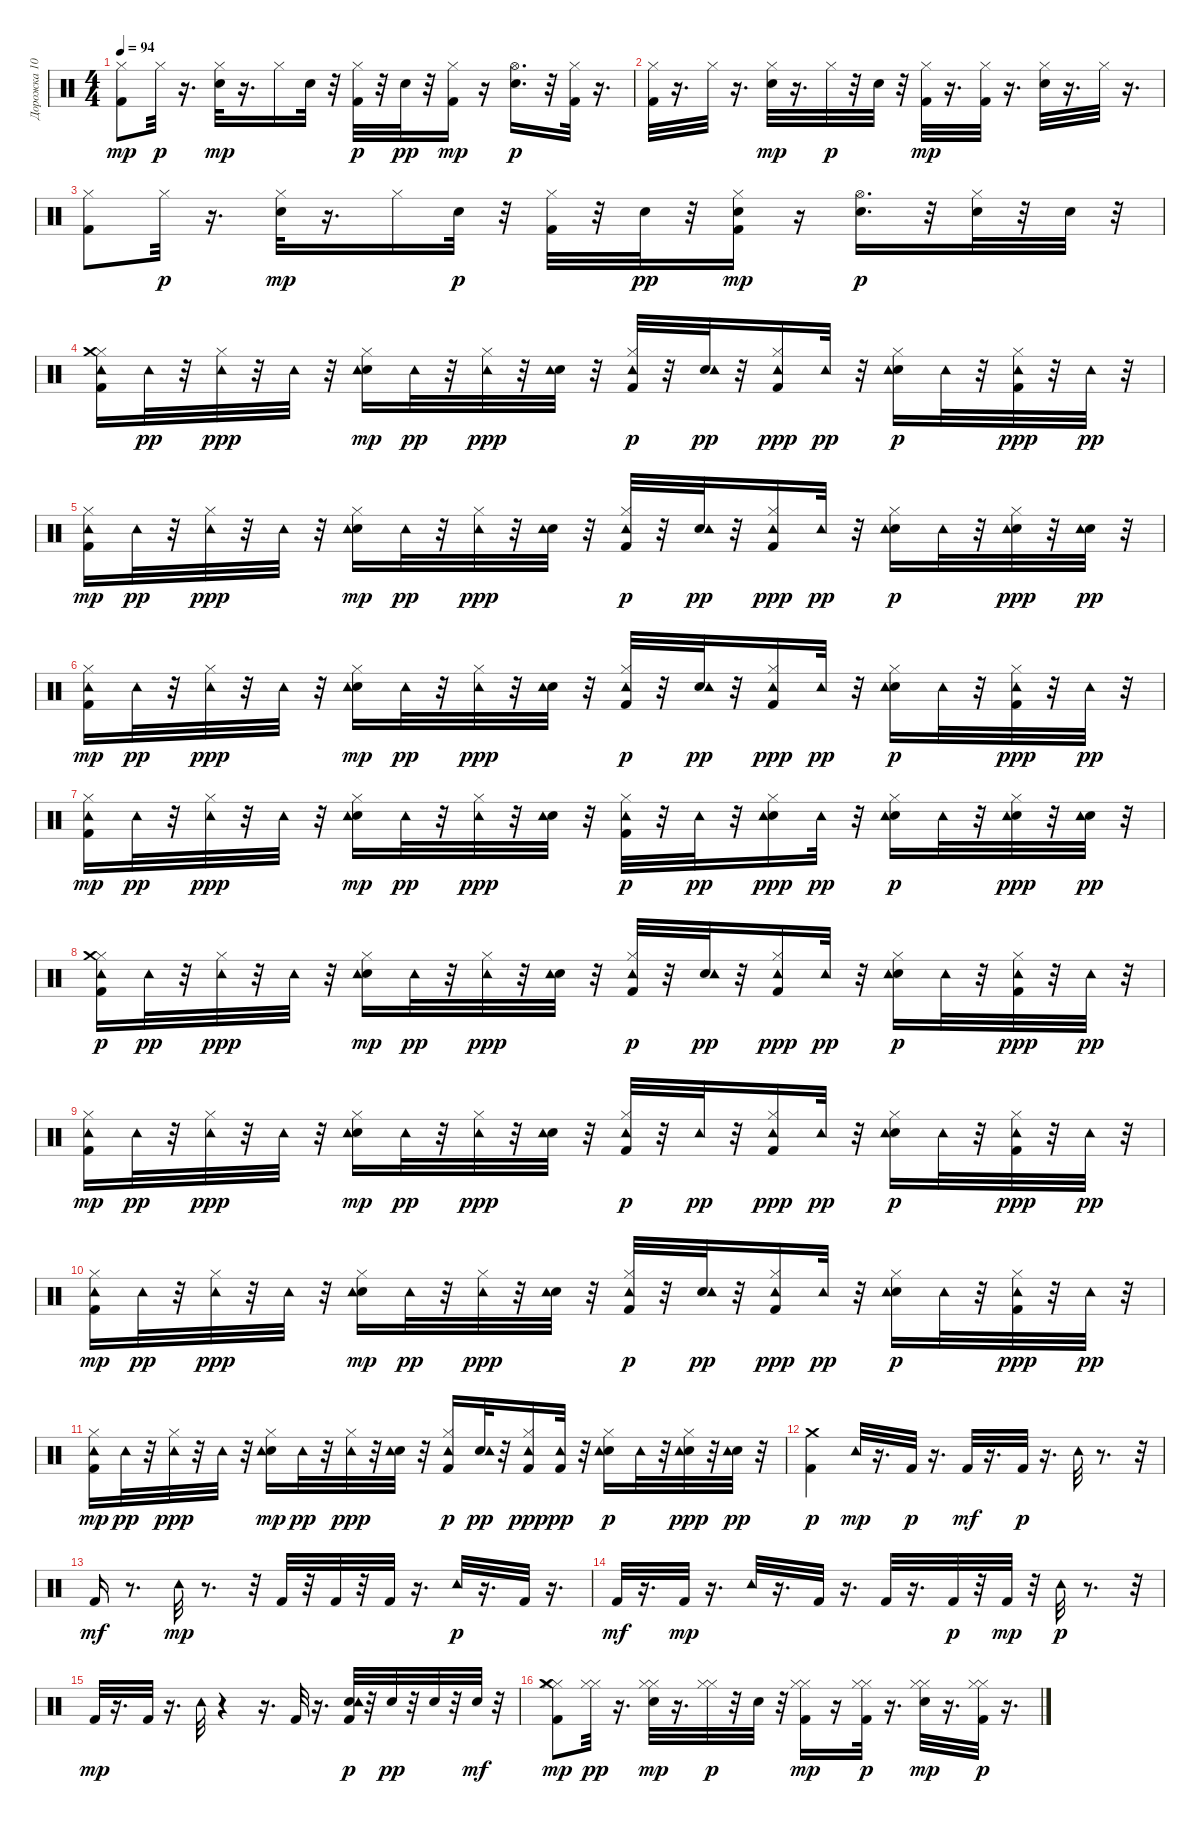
\track ("Дорожка 10" "Дорожка 10") {instrument percussion}
\staff {score}
\articulation defaults
\ts (4 4)
\tempo 94
\clef neutral
\ks c
("Kick (hit) 2" "Hi-Hat (closed)").8{dy mp} "Hi-Hat (closed)".32{dy p} r.16{d} ("Electric Snare (hit)" "Hi-Hat (closed)").32{dy mp} r.16{d} "Hi-Hat (closed)".16 "Electric Snare (hit)".32 r.32 ("Kick (hit) 2" "Hi-Hat (closed)").32{dy p} r.32 "Electric Snare (hit)".32{dy pp} r.32 ("Kick (hit) 2" "Hi-Hat (closed)").16{dy mp} r.16 ("Electric Snare (hit)" "Hi-Hat (open)").16{d dy p} r.32 ("Kick (hit) 2" "Hi-Hat (closed)").32 r.16{d} |
("Kick (hit) 2" "Hi-Hat (closed)").32 r.16{d} "Hi-Hat (closed)".32 r.16{d} ("Electric Snare (hit)" "Hi-Hat (closed)").32{dy mp} r.16{d} "Hi-Hat (closed)".32{dy p} r.32 "Electric Snare (hit)".32 r.32 ("Kick (hit) 2" "Hi-Hat (closed)").32{dy mp} r.16{d} ("Kick (hit) 2" "Hi-Hat (closed)").32 r.16{d} ("Electric Snare (hit)" "Hi-Hat (closed)").32 r.16{d} "Hi-Hat (closed)".32 r.16{d} |
("Kick (hit) 2" "Hi-Hat (closed)").8 "Hi-Hat (closed)".32{dy p} r.16{d} ("Electric Snare (hit)" "Hi-Hat (closed)").32{dy mp} r.16{d} "Hi-Hat (closed)".16 "Electric Snare (hit)".32{dy p} r.32 ("Kick (hit) 2" "Hi-Hat (closed)").32 r.32 "Electric Snare (hit)".32{dy pp} r.32 ("Kick (hit) 2" "Electric Snare (hit)" "Hi-Hat (closed)").16{dy mp} r.16 ("Electric Snare (hit)" "Hi-Hat (open)").16{d dy p} r.32 ("Electric Snare (hit)" "Hi-Hat (closed)").32 r.32 "Electric Snare (hit)".32 r.32 |
("Kick (hit) 2" "Hi-Hat (closed)" "Tambourine (hit)" "Crash medium (hit)").16 "Tambourine (hit)".32{dy pp} r.32 ("Hi-Hat (closed)" "Tambourine (hit)").32{dy ppp} r.32 "Tambourine (hit)".32 r.32 ("Electric Snare (hit)" "Hi-Hat (closed)" "Tambourine (hit)").16{dy mp} "Tambourine (hit)".32{dy pp} r.32 ("Hi-Hat (closed)" "Tambourine (hit)").32{dy ppp} r.32 ("Electric Snare (hit)" "Tambourine (hit)").32 r.32 ("Kick (hit) 2" "Hi-Hat (closed)" "Tambourine (hit)").32{dy p} r.32 ("Electric Snare (hit)" "Tambourine (hit)").32{dy pp} r.32 ("Kick (hit) 2" "Hi-Hat (closed)" "Tambourine (hit)").16{dy ppp} "Tambourine (hit)".32{dy pp} r.32 ("Electric Snare (hit)" "Hi-Hat (closed)" "Tambourine (hit)").16{dy p} "Tambourine (hit)".32 r.32 ("Kick (hit) 2" "Hi-Hat (closed)" "Tambourine (hit)").32{dy ppp} r.32 "Tambourine (hit)".32{dy pp} r.32 |
("Kick (hit) 2" "Hi-Hat (closed)" "Tambourine (hit)").16{dy mp} "Tambourine (hit)".32{dy pp} r.32 ("Hi-Hat (closed)" "Tambourine (hit)").32{dy ppp} r.32 "Tambourine (hit)".32 r.32 ("Electric Snare (hit)" "Hi-Hat (closed)" "Tambourine (hit)").16{dy mp} "Tambourine (hit)".32{dy pp} r.32 ("Hi-Hat (closed)" "Tambourine (hit)").32{dy ppp} r.32 ("Electric Snare (hit)" "Tambourine (hit)").32 r.32 ("Kick (hit) 2" "Hi-Hat (closed)" "Tambourine (hit)").32{dy p} r.32 ("Electric Snare (hit)" "Tambourine (hit)").32{dy pp} r.32 ("Kick (hit) 2" "Hi-Hat (closed)" "Tambourine (hit)").16{dy ppp} "Tambourine (hit)".32{dy pp} r.32 ("Electric Snare (hit)" "Hi-Hat (closed)" "Tambourine (hit)").16{dy p} "Tambourine (hit)".32 r.32 ("Electric Snare (hit)" "Hi-Hat (closed)" "Tambourine (hit)").32{dy ppp} r.32 ("Electric Snare (hit)" "Tambourine (hit)").32{dy pp} r.32 |
("Kick (hit) 2" "Hi-Hat (closed)" "Tambourine (hit)").16{dy mp} "Tambourine (hit)".32{dy pp} r.32 ("Hi-Hat (closed)" "Tambourine (hit)").32{dy ppp} r.32 "Tambourine (hit)".32 r.32 ("Electric Snare (hit)" "Hi-Hat (closed)" "Tambourine (hit)").16{dy mp} "Tambourine (hit)".32{dy pp} r.32 ("Hi-Hat (closed)" "Tambourine (hit)").32{dy ppp} r.32 ("Electric Snare (hit)" "Tambourine (hit)").32 r.32 ("Kick (hit) 2" "Hi-Hat (closed)" "Tambourine (hit)").32{dy p} r.32 ("Electric Snare (hit)" "Tambourine (hit)").32{dy pp} r.32 ("Kick (hit) 2" "Hi-Hat (closed)" "Tambourine (hit)").16{dy ppp} "Tambourine (hit)".32{dy pp} r.32 ("Electric Snare (hit)" "Hi-Hat (closed)" "Tambourine (hit)").16{dy p} "Tambourine (hit)".32 r.32 ("Kick (hit) 2" "Hi-Hat (closed)" "Tambourine (hit)").32{dy ppp} r.32 "Tambourine (hit)".32{dy pp} r.32 |
("Kick (hit) 2" "Hi-Hat (closed)" "Tambourine (hit)").16{dy mp} "Tambourine (hit)".32{dy pp} r.32 ("Hi-Hat (closed)" "Tambourine (hit)").32{dy ppp} r.32 "Tambourine (hit)".32 r.32 ("Electric Snare (hit)" "Hi-Hat (closed)" "Tambourine (hit)").16{dy mp} "Tambourine (hit)".32{dy pp} r.32 ("Hi-Hat (closed)" "Tambourine (hit)").32{dy ppp} r.32 ("Electric Snare (hit)" "Tambourine (hit)").32 r.32 ("Kick (hit) 2" "Hi-Hat (closed)" "Tambourine (hit)").32{dy p} r.32 "Tambourine (hit)".32{dy pp} r.32 ("Electric Snare (hit)" "Hi-Hat (closed)" "Tambourine (hit)").16{dy ppp} "Tambourine (hit)".32{dy pp} r.32 ("Electric Snare (hit)" "Hi-Hat (closed)" "Tambourine (hit)").16{dy p} "Tambourine (hit)".32 r.32 ("Electric Snare (hit)" "Hi-Hat (closed)" "Tambourine (hit)").32{dy ppp} r.32 ("Electric Snare (hit)" "Tambourine (hit)").32{dy pp} r.32 |
("Kick (hit) 2" "Hi-Hat (closed)" "Tambourine (hit)" "Crash medium (hit)").16{dy p} "Tambourine (hit)".32{dy pp} r.32 ("Hi-Hat (closed)" "Tambourine (hit)").32{dy ppp} r.32 "Tambourine (hit)".32 r.32 ("Electric Snare (hit)" "Hi-Hat (closed)" "Tambourine (hit)").16{dy mp} "Tambourine (hit)".32{dy pp} r.32 ("Hi-Hat (closed)" "Tambourine (hit)").32{dy ppp} r.32 ("Electric Snare (hit)" "Tambourine (hit)").32 r.32 ("Kick (hit) 2" "Hi-Hat (closed)" "Tambourine (hit)").32{dy p} r.32 ("Electric Snare (hit)" "Tambourine (hit)").32{dy pp} r.32 ("Kick (hit) 2" "Hi-Hat (closed)" "Tambourine (hit)").16{dy ppp} "Tambourine (hit)".32{dy pp} r.32 ("Electric Snare (hit)" "Hi-Hat (closed)" "Tambourine (hit)").16{dy p} "Tambourine (hit)".32 r.32 ("Kick (hit) 2" "Hi-Hat (closed)" "Tambourine (hit)").32{dy ppp} r.32 "Tambourine (hit)".32{dy pp} r.32 |
("Kick (hit) 2" "Hi-Hat (closed)" "Tambourine (hit)").16{dy mp} "Tambourine (hit)".32{dy pp} r.32 ("Hi-Hat (closed)" "Tambourine (hit)").32{dy ppp} r.32 "Tambourine (hit)".32 r.32 ("Electric Snare (hit)" "Hi-Hat (closed)" "Tambourine (hit)").16{dy mp} "Tambourine (hit)".32{dy pp} r.32 ("Hi-Hat (closed)" "Tambourine (hit)").32{dy ppp} r.32 ("Electric Snare (hit)" "Tambourine (hit)").32 r.32 ("Kick (hit) 2" "Hi-Hat (closed)" "Tambourine (hit)").32{dy p} r.32 "Tambourine (hit)".32{dy pp} r.32 ("Kick (hit) 2" "Hi-Hat (closed)" "Tambourine (hit)").16{dy ppp} "Tambourine (hit)".32{dy pp} r.32 ("Electric Snare (hit)" "Hi-Hat (closed)" "Tambourine (hit)").16{dy p} "Tambourine (hit)".32 r.32 ("Kick (hit) 2" "Hi-Hat (closed)" "Tambourine (hit)").32{dy ppp} r.32 "Tambourine (hit)".32{dy pp} r.32 |
("Kick (hit) 2" "Hi-Hat (closed)" "Tambourine (hit)").16{dy mp} "Tambourine (hit)".32{dy pp} r.32 ("Hi-Hat (closed)" "Tambourine (hit)").32{dy ppp} r.32 "Tambourine (hit)".32 r.32 ("Electric Snare (hit)" "Hi-Hat (closed)" "Tambourine (hit)").16{dy mp} "Tambourine (hit)".32{dy pp} r.32 ("Hi-Hat (closed)" "Tambourine (hit)").32{dy ppp} r.32 ("Electric Snare (hit)" "Tambourine (hit)").32 r.32 ("Kick (hit) 2" "Hi-Hat (closed)" "Tambourine (hit)").32{dy p} r.32 ("Electric Snare (hit)" "Tambourine (hit)").32{dy pp} r.32 ("Kick (hit) 2" "Hi-Hat (closed)" "Tambourine (hit)").16{dy ppp} "Tambourine (hit)".32{dy pp} r.32 ("Electric Snare (hit)" "Hi-Hat (closed)" "Tambourine (hit)").16{dy p} "Tambourine (hit)".32 r.32 ("Kick (hit) 2" "Hi-Hat (closed)" "Tambourine (hit)").32{dy ppp} r.32 "Tambourine (hit)".32{dy pp} r.32 |
("Kick (hit) 2" "Hi-Hat (closed)" "Tambourine (hit)").16{dy mp} "Tambourine (hit)".32{dy pp} r.32 ("Hi-Hat (closed)" "Tambourine (hit)").32{dy ppp} r.32 "Tambourine (hit)".32 r.32 ("Electric Snare (hit)" "Hi-Hat (closed)" "Tambourine (hit)").16{dy mp} "Tambourine (hit)".32{dy pp} r.32 ("Hi-Hat (closed)" "Tambourine (hit)").32{dy ppp} r.32 ("Electric Snare (hit)" "Tambourine (hit)").32 r.32 ("Kick (hit) 2" "Hi-Hat (closed)" "Tambourine (hit)").16{dy p} ("Electric Snare (hit)" "Tambourine (hit)").32{dy pp} r.32 ("Kick (hit) 2" "Hi-Hat (closed)" "Tambourine (hit)").16{dy ppp} ("Kick (hit) 2" "Tambourine (hit)").32{dy pp} r.32 ("Electric Snare (hit)" "Hi-Hat (closed)" "Tambourine (hit)").16{dy p} "Tambourine (hit)".32 r.32 ("Electric Snare (hit)" "Hi-Hat (closed)" "Tambourine (hit)").32{dy ppp} r.32 ("Electric Snare (hit)" "Tambourine (hit)").32{dy pp} r.32 |
("Kick (hit) 2" "Crash medium (hit)").4{dy p} "Tambourine (hit)".32{dy mp} r.16{d} "Kick (hit) 2".32{dy p} r.16{d} "Kick (hit) 2".32{dy mf} r.16{d} "Kick (hit) 2".32{dy p} r.16{d} "Tambourine (hit)".32 r.8{d} r.32 |
"Kick (hit) 2".16{dy mf} r.8{d} "Tambourine (hit)".32{dy mp} r.8{d} r.32 "Kick (hit) 2".32 r.32 "Kick (hit) 2".32 r.32 "Kick (hit) 2".32 r.16{d} "Tambourine (hit)".32{dy p} r.16{d} "Kick (hit) 2".32 r.16{d} |
"Kick (hit) 2".32{dy mf} r.16{d} "Kick (hit) 2".32{dy mp} r.16{d} "Tambourine (hit)".32 r.16{d} "Kick (hit) 2".32 r.16{d} "Kick (hit) 2".32 r.16{d} "Kick (hit) 2".32{dy p} r.32 "Kick (hit) 2".32{dy mp} r.32 "Tambourine (hit)".32{dy p} r.8{d} r.32 |
"Kick (hit) 2".32{dy mp} r.16{d} "Kick (hit) 2".32 r.16{d} "Tambourine (hit)".32 r.4 r.16{d} "Kick (hit) 2".32 r.16{d} ("Kick (hit) 2" "Electric Snare (hit)" "Tambourine (hit)").32{dy p} r.32 "Electric Snare (hit)".32{dy pp} r.32 "Electric Snare (hit)".32 r.32 "Electric Snare (hit)".32{dy mf} r.32 |
("Kick (hit) 2" "Hi-Hat (closed)" "Hi-Hat (closed)" "Crash medium (hit)").8{dy mp} ("Hi-Hat (closed)" "Hi-Hat (closed)").32{dy pp} r.16{d} ("Electric Snare (hit)" "Hi-Hat (closed)" "Hi-Hat (closed)").32{dy mp} r.16{d} ("Hi-Hat (closed)" "Hi-Hat (closed)").32{dy p} r.32 "Electric Snare (hit)".32 r.32 ("Kick (hit) 2" "Hi-Hat (closed)" "Hi-Hat (closed)").16{dy mp} r.16 ("Kick (hit) 2" "Hi-Hat (closed)" "Hi-Hat (closed)").32{dy p} r.16{d} ("Electric Snare (hit)" "Hi-Hat (closed)" "Hi-Hat (closed)").32{dy mp} r.16{d} ("Kick (hit) 2" "Hi-Hat (closed)" "Hi-Hat (closed)").32{dy p} r.16{d}
